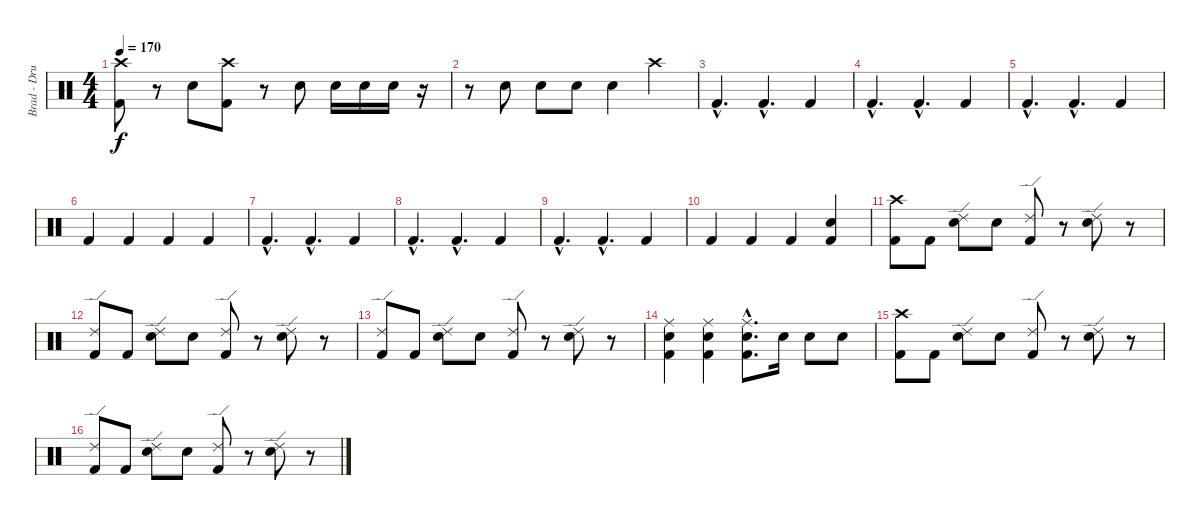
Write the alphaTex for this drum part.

\track ("Brad - Drums" "Brad - Dru") {instrument percussion}
\staff {score}
\articulation defaults
\ts (4 4)
\tempo 170
\clef neutral
\ks c
("Crash high (hit)" "Kick (hit) 2").8{dy f} r.8 "Electric Snare (hit)".8 ("Crash high (hit)" "Kick (hit) 2").8 r.8 "Electric Snare (hit)".8 "Electric Snare (hit)".16 "Electric Snare (hit)".16 "Electric Snare (hit)".16 r.16 |
r.8 "Electric Snare (hit)".8 "Electric Snare (hit)".8 "Electric Snare (hit)".8 "Electric Snare (hit)".4 "Crash high (hit)".4 |
"Kick (hit) 2"{hac}.4{d} "Kick (hit) 2"{hac}.4{d} "Kick (hit) 2".4 |
"Kick (hit) 2"{hac}.4{d} "Kick (hit) 2"{hac}.4{d} "Kick (hit) 2".4 |
"Kick (hit) 2"{hac}.4{d} "Kick (hit) 2"{hac}.4{d} "Kick (hit) 2".4 |
"Kick (hit) 2".4 "Kick (hit) 2".4 "Kick (hit) 2".4 "Kick (hit) 2".4 |
"Kick (hit) 2"{hac}.4{d} "Kick (hit) 2"{hac}.4{d} "Kick (hit) 2".4 |
"Kick (hit) 2"{hac}.4{d} "Kick (hit) 2"{hac}.4{d} "Kick (hit) 2".4 |
"Kick (hit) 2"{hac}.4{d} "Kick (hit) 2"{hac}.4{d} "Kick (hit) 2".4 |
"Kick (hit) 2".4 "Kick (hit) 2".4 "Kick (hit) 2".4 ("Electric Snare (hit)" "Kick (hit) 2").4 |
("Crash high (hit)" "Kick (hit) 2").8 "Kick (hit) 2".8 ("Ride (edge) 2" "Electric Snare (hit)").8 "Electric Snare (hit)".8 ("Ride (edge) 2" "Kick (hit) 2").8 r.8 ("Ride (edge) 2" "Electric Snare (hit)").8 r.8 |
("Ride (edge) 2" "Kick (hit) 2").8 "Kick (hit) 2".8 ("Ride (edge) 2" "Electric Snare (hit)").8 "Electric Snare (hit)".8 ("Ride (edge) 2" "Kick (hit) 2").8 r.8 ("Ride (edge) 2" "Electric Snare (hit)").8 r.8 |
("Ride (edge) 2" "Kick (hit) 2").8 "Kick (hit) 2".8 ("Ride (edge) 2" "Electric Snare (hit)").8 "Electric Snare (hit)".8 ("Ride (edge) 2" "Kick (hit) 2").8 r.8 ("Ride (edge) 2" "Electric Snare (hit)").8 r.8 |
("Ride (middle)" "Electric Snare (hit)" "Kick (hit) 2").4 ("Ride (middle)" "Electric Snare (hit)" "Kick (hit) 2").4 ("Ride (middle)"{hac} "Electric Snare (hit)"{hac} "Kick (hit) 2"{hac}).8{d} "Electric Snare (hit)".16 "Electric Snare (hit)".8 "Electric Snare (hit)".8 |
("Crash high (hit)" "Kick (hit) 2").8 "Kick (hit) 2".8 ("Ride (edge) 2" "Electric Snare (hit)").8 "Electric Snare (hit)".8 ("Ride (edge) 2" "Kick (hit) 2").8 r.8 ("Ride (edge) 2" "Electric Snare (hit)").8 r.8 |
("Ride (edge) 2" "Kick (hit) 2").8 "Kick (hit) 2".8 ("Ride (edge) 2" "Electric Snare (hit)").8 "Electric Snare (hit)".8 ("Ride (edge) 2" "Kick (hit) 2").8 r.8 ("Ride (edge) 2" "Electric Snare (hit)").8 r.8
